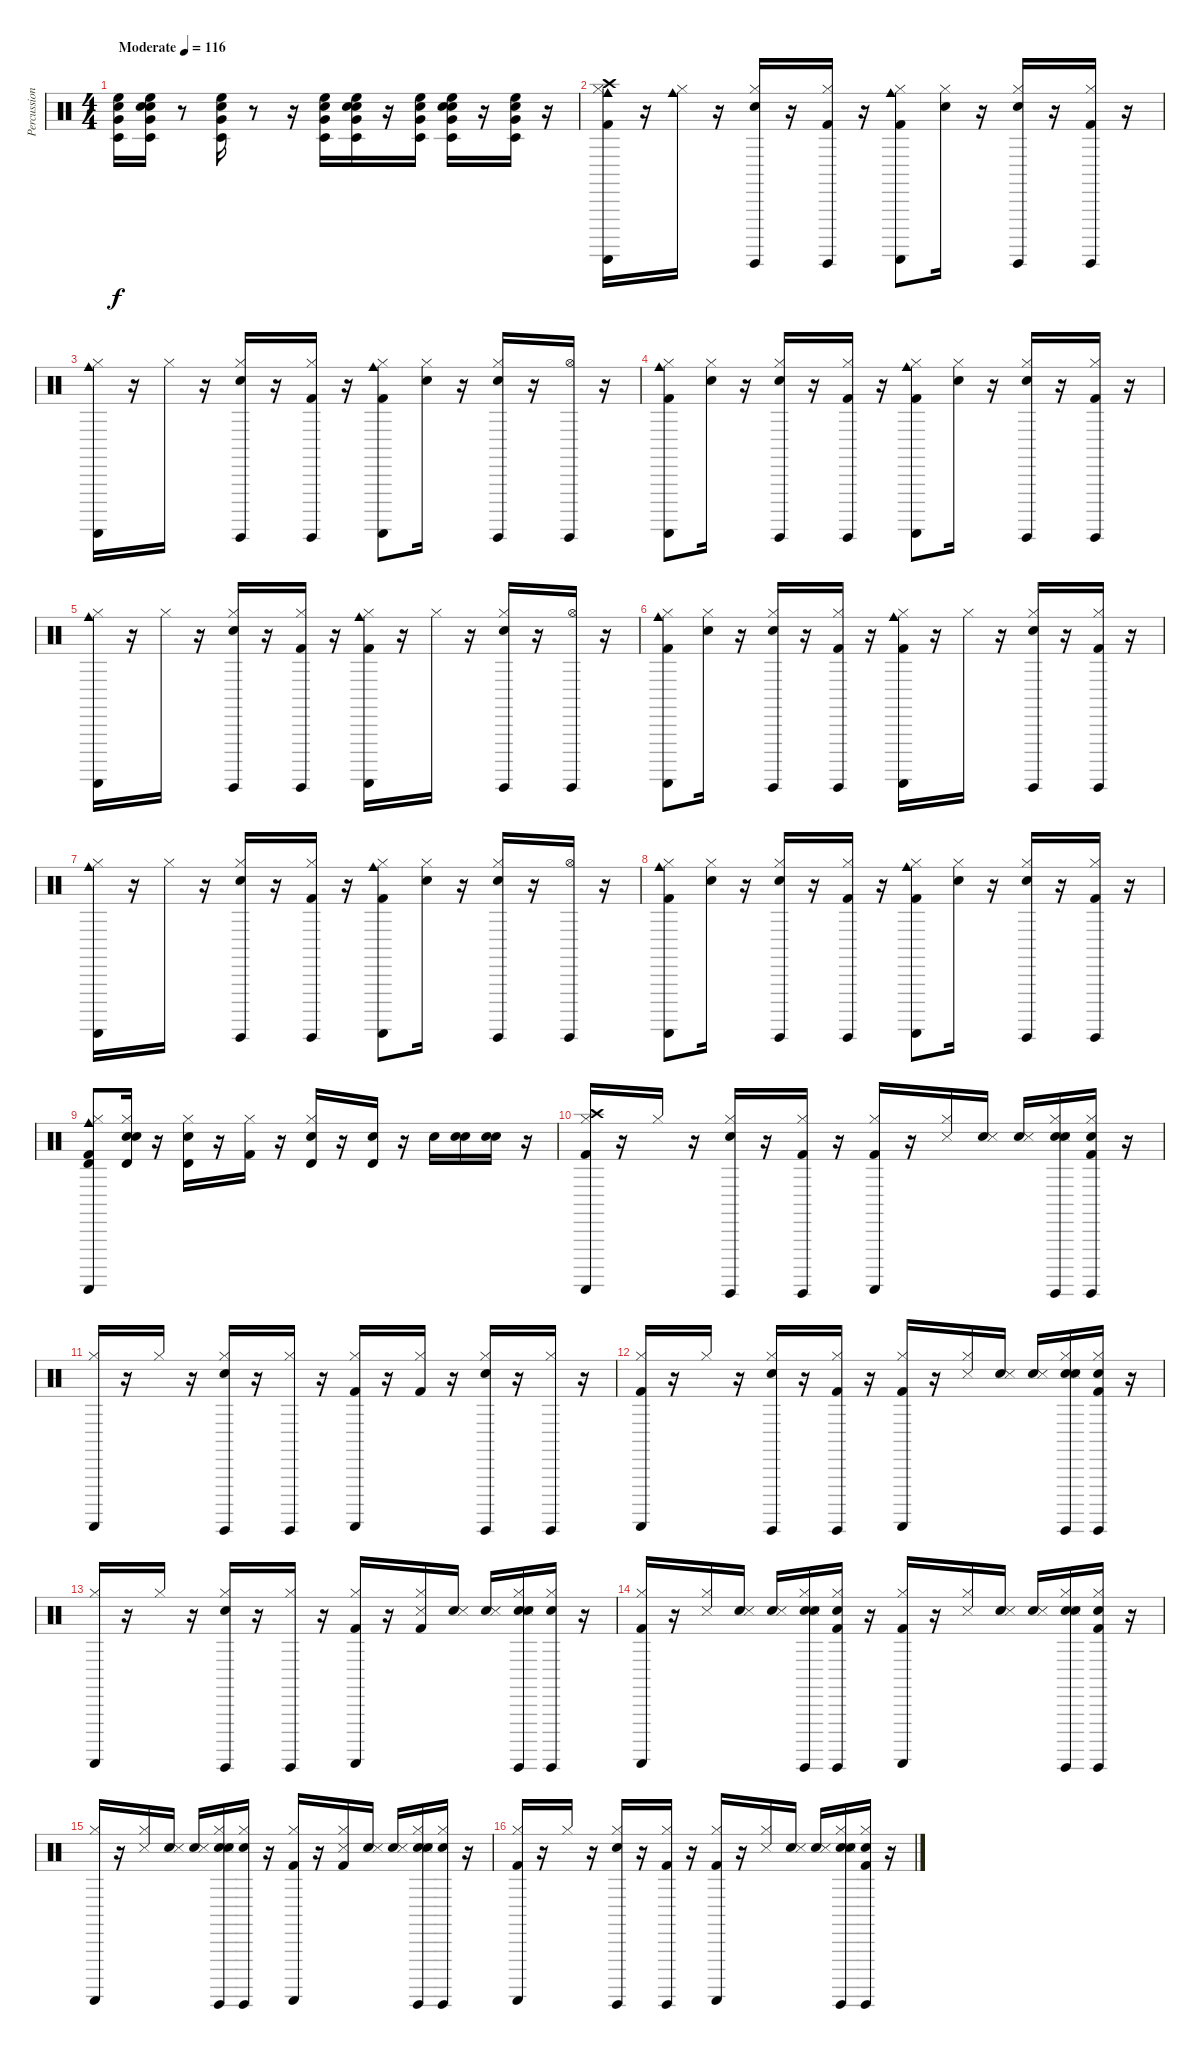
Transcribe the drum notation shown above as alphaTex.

\track ("Percussion" "Percussion") {instrument percussion}
\staff {score}
\articulation defaults
\ts (4 4)
\tempo (116 "Moderate")
\clef neutral
\ks c
("Very Low Tom (hit)" "Timbale low (hit)" "Electric Snare (hit)" "High Floor Tom (hit)").16{dy f} ("Snare (hit)" "Very Low Tom (hit)" "Timbale low (hit)" "Electric Snare (hit)" "High Floor Tom (hit)").16 r.8 ("Very Low Tom (hit)" "Timbale low (hit)" "High Floor Tom (hit)" "Electric Snare (hit)").16 r.8 r.16 ("Very Low Tom (hit)" "Electric Snare (hit)" "Timbale low (hit)" "High Floor Tom (hit)").16 ("Snare (hit)" "Timbale low (hit)" "Electric Snare (hit)" "High Floor Tom (hit)" "Very Low Tom (hit)").16 r.16 ("High Floor Tom (hit)" "Timbale low (hit)" "Electric Snare (hit)" "Very Low Tom (hit)").16 ("Snare (hit)" "Very Low Tom (hit)" "High Floor Tom (hit)" "Electric Snare (hit)" "Timbale low (hit)").16 r.16 ("Very Low Tom (hit)" "Electric Snare (hit)" "High Floor Tom (hit)" "Timbale low (hit)").16 r.16 |
("Kick (hit) 2" "Hi-Hat (closed)" "Crash high (hit)" "Guiro (scrap-return)" "Cowbell medium (hit)").16 r.16 ("Cowbell medium (hit)" "Hi-Hat (closed)").16 r.16 ("Guiro (hit)" "Snare (hit) 2" "Hi-Hat (closed)").16 r.16 ("Hi-Hat (closed)" "Kick (hit) 2" "Guiro (hit)").16 r.16 ("Guiro (scrap-return)" "Kick (hit) 2" "Hi-Hat (closed)" "Cowbell medium (hit)").8 ("Snare (hit)" "Hi-Hat (closed)").16 r.16 ("Hi-Hat (closed)" "Guiro (hit)" "Snare (hit) 2").16 r.16 ("Kick (hit) 2" "Guiro (hit)" "Hi-Hat (closed)").16 r.16 |
("Cowbell medium (hit)" "Guiro (scrap-return)" "Hi-Hat (closed)").16 r.16 "Hi-Hat (closed)".16 r.16 ("Guiro (hit)" "Snare (hit) 2" "Hi-Hat (closed)").16 r.16 ("Hi-Hat (closed)" "Kick (hit) 2" "Guiro (hit)").16 r.16 ("Guiro (scrap-return)" "Kick (hit) 2" "Hi-Hat (closed)" "Cowbell medium (hit)").8 ("Snare (hit)" "Hi-Hat (closed)").16 r.16 ("Guiro (hit)" "Snare (hit) 2" "Hi-Hat (closed)").16 r.16 ("Hi-Hat (open)" "Guiro (hit)").16 r.16 |
("Guiro (scrap-return)" "Kick (hit) 2" "Hi-Hat (closed)" "Cowbell medium (hit)").8 ("Snare (hit)" "Hi-Hat (closed)").16 r.16 ("Guiro (hit)" "Snare (hit) 2" "Hi-Hat (closed)").16 r.16 ("Hi-Hat (closed)" "Kick (hit) 2" "Guiro (hit)").16 r.16 ("Guiro (scrap-return)" "Kick (hit) 2" "Hi-Hat (closed)" "Cowbell medium (hit)").8 ("Snare (hit)" "Hi-Hat (closed)").16 r.16 ("Guiro (hit)" "Snare (hit) 2" "Hi-Hat (closed)").16 r.16 ("Guiro (hit)" "Hi-Hat (closed)" "Kick (hit) 2").16 r.16 |
("Guiro (scrap-return)" "Hi-Hat (closed)" "Cowbell medium (hit)").16 r.16 "Hi-Hat (closed)".16 r.16 ("Guiro (hit)" "Snare (hit) 2" "Hi-Hat (closed)").16 r.16 ("Hi-Hat (closed)" "Kick (hit) 2" "Guiro (hit)").16 r.16 ("Cowbell medium (hit)" "Guiro (scrap-return)" "Kick (hit) 2" "Hi-Hat (closed)").16 r.16 "Hi-Hat (closed)".16 r.16 ("Guiro (hit)" "Snare (hit) 2" "Hi-Hat (closed)").16 r.16 ("Hi-Hat (open)" "Guiro (hit)").16 r.16 |
("Guiro (scrap-return)" "Kick (hit) 2" "Hi-Hat (closed)" "Cowbell medium (hit)").8 ("Snare (hit)" "Hi-Hat (closed)").16 r.16 ("Guiro (hit)" "Snare (hit) 2" "Hi-Hat (closed)").16 r.16 ("Hi-Hat (closed)" "Kick (hit) 2" "Guiro (hit)").16 r.16 ("Cowbell medium (hit)" "Guiro (scrap-return)" "Kick (hit) 2" "Hi-Hat (closed)").16 r.16 "Hi-Hat (closed)".16 r.16 ("Guiro (hit)" "Snare (hit) 2" "Hi-Hat (closed)").16 r.16 ("Guiro (hit)" "Hi-Hat (closed)" "Kick (hit) 2").16 r.16 |
("Cowbell medium (hit)" "Guiro (scrap-return)" "Hi-Hat (closed)").16 r.16 "Hi-Hat (closed)".16 r.16 ("Guiro (hit)" "Snare (hit) 2" "Hi-Hat (closed)").16 r.16 ("Hi-Hat (closed)" "Kick (hit) 2" "Guiro (hit)").16 r.16 ("Guiro (scrap-return)" "Kick (hit) 2" "Hi-Hat (closed)" "Cowbell medium (hit)").8 ("Snare (hit)" "Hi-Hat (closed)").16 r.16 ("Guiro (hit)" "Snare (hit) 2" "Hi-Hat (closed)").16 r.16 ("Hi-Hat (open)" "Guiro (hit)").16 r.16 |
("Guiro (scrap-return)" "Kick (hit) 2" "Hi-Hat (closed)" "Cowbell medium (hit)").8 ("Snare (hit)" "Hi-Hat (closed)").16 r.16 ("Guiro (hit)" "Snare (hit) 2" "Hi-Hat (closed)").16 r.16 ("Hi-Hat (closed)" "Kick (hit) 2" "Guiro (hit)").16 r.16 ("Guiro (scrap-return)" "Kick (hit) 2" "Hi-Hat (closed)" "Cowbell medium (hit)").8 ("Snare (hit)" "Hi-Hat (closed)").16 r.16 ("Guiro (hit)" "Snare (hit) 2" "Hi-Hat (closed)").16 r.16 ("Guiro (hit)" "Hi-Hat (closed)" "Kick (hit) 2").16 r.16 |
("Hi-Hat (closed)" "Guiro (scrap-return)" "Kick (hit) 2" "Timbale high (hit)" "Cowbell medium (hit)").8 ("Snare (hit)" "Hi-Hat (closed)" "Electric Snare (hit)" "Timbale high (hit)").16 r.16 ("Hi-Hat (closed)" "Electric Snare (hit)" "Timbale high (hit)").16 r.16 ("Hi-Hat (closed)" "Kick (hit) 2").16 r.16 ("Hi-Hat (closed)" "Timbale high (hit)" "Electric Snare (hit)").16 r.16 ("Electric Snare (hit)" "Timbale high (hit)").16 r.16 "Electric Snare (hit)".16 ("Snare (hit)" "Electric Snare (hit)").16 ("Snare (hit)" "Electric Snare (hit)").16 r.16 |
("Guiro (scrap-return)" "Hi-Hat (closed)" "Crash high (hit)" "Kick (hit) 2").16 r.16 "Hi-Hat (closed)".16 r.16 ("Guiro (hit)" "Hi-Hat (closed)" "Snare (hit) 2").16 r.16 ("Guiro (hit)" "Hi-Hat (closed)" "Kick (hit) 2").16 r.16 ("Guiro (scrap-return)" "Hi-Hat (closed)" "Kick (hit) 2").16 r.16 ("Hi-Hat (closed)" "Snare (side stick) 3").16 ("Snare (hit)" "Snare (side stick) 3").16 ("Snare (hit)" "Snare (side stick) 3").16 ("Snare (hit)" "Snare (side stick) 3" "Guiro (hit)" "Hi-Hat (closed)" "Snare (hit) 2").16 ("Snare (hit)" "Guiro (hit)" "Hi-Hat (closed)" "Kick (hit) 2").16 r.16 |
("Guiro (scrap-return)" "Hi-Hat (closed)").16 r.16 "Hi-Hat (closed)".16 r.16 ("Snare (hit) 2" "Guiro (hit)" "Hi-Hat (closed)").16 r.16 ("Guiro (hit)" "Hi-Hat (closed)").16 r.16 ("Guiro (scrap-return)" "Hi-Hat (closed)" "Kick (hit) 2").16 r.16 ("Hi-Hat (closed)" "Kick (hit) 2").16 r.16 ("Guiro (hit)" "Hi-Hat (closed)" "Snare (hit) 2").16 r.16 ("Guiro (hit)" "Hi-Hat (closed)").16 r.16 |
("Guiro (scrap-return)" "Hi-Hat (closed)" "Kick (hit) 2").16 r.16 "Hi-Hat (closed)".16 r.16 ("Guiro (hit)" "Hi-Hat (closed)" "Snare (hit) 2").16 r.16 ("Guiro (hit)" "Hi-Hat (closed)" "Kick (hit) 2").16 r.16 ("Guiro (scrap-return)" "Hi-Hat (closed)" "Kick (hit) 2").16 r.16 ("Hi-Hat (closed)" "Snare (side stick) 3").16 ("Snare (hit)" "Snare (side stick) 3").16 ("Snare (hit)" "Snare (side stick) 3").16 ("Snare (hit)" "Guiro (hit)" "Snare (side stick) 3" "Hi-Hat (closed)" "Snare (hit) 2").16 ("Snare (hit)" "Guiro (hit)" "Hi-Hat (closed)" "Kick (hit) 2").16 r.16 |
("Guiro (scrap-return)" "Hi-Hat (closed)").16 r.16 "Hi-Hat (closed)".16 r.16 ("Guiro (hit)" "Hi-Hat (closed)" "Snare (hit) 2").16 r.16 ("Guiro (hit)" "Hi-Hat (closed)").16 r.16 ("Guiro (scrap-return)" "Hi-Hat (closed)" "Kick (hit) 2").16 r.16 ("Hi-Hat (closed)" "Kick (hit) 2" "Snare (side stick) 3").16 ("Snare (hit)" "Snare (side stick) 3").16 ("Snare (hit)" "Snare (side stick) 3").16 ("Snare (hit)" "Snare (hit) 2" "Guiro (hit)" "Hi-Hat (closed)" "Snare (side stick) 3").16 ("Snare (hit)" "Guiro (hit)" "Hi-Hat (closed)").16 r.16 |
("Guiro (scrap-return)" "Hi-Hat (closed)" "Kick (hit) 2").16 r.16 ("Hi-Hat (closed)" "Snare (side stick) 3").16 ("Snare (hit)" "Snare (side stick) 3").16 ("Snare (hit)" "Snare (side stick) 3").16 ("Snare (hit)" "Guiro (hit)" "Snare (side stick) 3" "Hi-Hat (closed)" "Snare (hit) 2").16 ("Snare (hit)" "Guiro (hit)" "Hi-Hat (closed)" "Kick (hit) 2").16 r.16 ("Guiro (scrap-return)" "Hi-Hat (closed)" "Kick (hit) 2").16 r.16 ("Snare (side stick) 3" "Hi-Hat (closed)").16 ("Snare (hit)" "Snare (side stick) 3").16 ("Snare (hit)" "Snare (side stick) 3").16 ("Snare (hit)" "Snare (side stick) 3" "Guiro (hit)" "Hi-Hat (closed)" "Snare (hit) 2").16 ("Snare (hit)" "Guiro (hit)" "Hi-Hat (closed)" "Kick (hit) 2").16 r.16 |
("Guiro (scrap-return)" "Hi-Hat (closed)").16 r.16 ("Snare (side stick) 3" "Hi-Hat (closed)").16 ("Snare (hit)" "Snare (side stick) 3").16 ("Snare (hit)" "Snare (side stick) 3").16 ("Snare (hit)" "Guiro (hit)" "Hi-Hat (closed)" "Snare (side stick) 3" "Snare (hit) 2").16 ("Snare (hit)" "Guiro (hit)" "Hi-Hat (closed)").16 r.16 ("Kick (hit) 2" "Guiro (scrap-return)" "Hi-Hat (closed)").16 r.16 ("Snare (side stick) 3" "Hi-Hat (closed)" "Kick (hit) 2").16 ("Snare (hit)" "Snare (side stick) 3").16 ("Snare (hit)" "Snare (side stick) 3").16 ("Snare (hit)" "Guiro (hit)" "Hi-Hat (closed)" "Snare (side stick) 3" "Snare (hit) 2").16 ("Snare (hit)" "Guiro (hit)" "Hi-Hat (closed)").16 r.16 |
("Guiro (scrap-return)" "Hi-Hat (closed)" "Kick (hit) 2").16 r.16 "Hi-Hat (closed)".16 r.16 ("Guiro (hit)" "Hi-Hat (closed)" "Snare (hit) 2").16 r.16 ("Guiro (hit)" "Hi-Hat (closed)" "Kick (hit) 2").16 r.16 ("Guiro (scrap-return)" "Hi-Hat (closed)" "Kick (hit) 2").16 r.16 ("Hi-Hat (closed)" "Snare (side stick) 3").16 ("Snare (hit)" "Snare (side stick) 3").16 ("Snare (hit)" "Snare (side stick) 3").16 ("Snare (hit)" "Guiro (hit)" "Hi-Hat (closed)" "Snare (side stick) 3" "Snare (hit) 2").16 ("Snare (hit)" "Kick (hit) 2" "Guiro (hit)" "Hi-Hat (closed)").16 r.16
